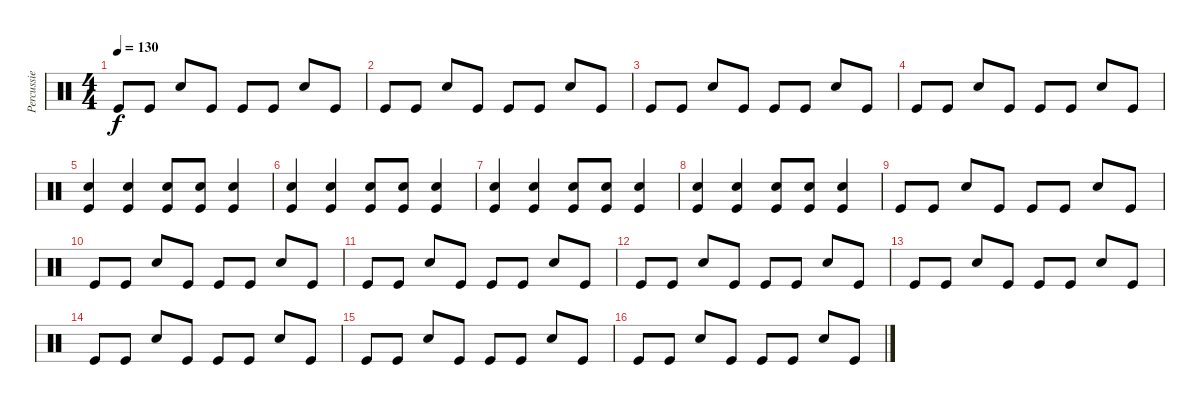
\track ("Percussie" "Percussie") {instrument percussion}
\staff {score}
\articulation defaults
\ts (4 4)
\tempo 130
\clef neutral
\ks c "Kick (hit)".8{dy f} "Kick (hit)".8 "Snare (hit) 2".8 "Kick (hit)".8 "Kick (hit)".8 "Kick (hit)".8 "Snare (hit) 2".8 "Kick (hit)".8
|
"Kick (hit)".8 "Kick (hit)".8 "Snare (hit) 2".8 "Kick (hit)".8 "Kick (hit)".8 "Kick (hit)".8 "Snare (hit) 2".8 "Kick (hit)".8 |
"Kick (hit)".8 "Kick (hit)".8 "Snare (hit) 2".8 "Kick (hit)".8 "Kick (hit)".8 "Kick (hit)".8 "Snare (hit) 2".8 "Kick (hit)".8 |
"Kick (hit)".8 "Kick (hit)".8 "Snare (hit) 2".8 "Kick (hit)".8 "Kick (hit)".8 "Kick (hit)".8 "Snare (hit) 2".8 "Kick (hit)".8 |
("Kick (hit)" "Snare (hit) 2").4 ("Kick (hit)" "Snare (hit) 2").4 ("Kick (hit)" "Snare (hit) 2").8 ("Kick (hit)" "Snare (hit) 2").8 ("Kick (hit)" "Snare (hit) 2").4 |
("Kick (hit)" "Snare (hit) 2").4 ("Kick (hit)" "Snare (hit) 2").4 ("Kick (hit)" "Snare (hit) 2").8 ("Kick (hit)" "Snare (hit) 2").8 ("Kick (hit)" "Snare (hit) 2").4 |
("Kick (hit)" "Snare (hit) 2").4 ("Kick (hit)" "Snare (hit) 2").4 ("Kick (hit)" "Snare (hit) 2").8 ("Kick (hit)" "Snare (hit) 2").8 ("Kick (hit)" "Snare (hit) 2").4 |
("Kick (hit)" "Snare (hit) 2").4 ("Kick (hit)" "Snare (hit) 2").4 ("Kick (hit)" "Snare (hit) 2").8 ("Kick (hit)" "Snare (hit) 2").8 ("Kick (hit)" "Snare (hit) 2").4 |
"Kick (hit)".8 "Kick (hit)".8 "Snare (hit) 2".8 "Kick (hit)".8 "Kick (hit)".8 "Kick (hit)".8 "Snare (hit) 2".8 "Kick (hit)".8 |
"Kick (hit)".8 "Kick (hit)".8 "Snare (hit) 2".8 "Kick (hit)".8 "Kick (hit)".8 "Kick (hit)".8 "Snare (hit) 2".8 "Kick (hit)".8 |
"Kick (hit)".8 "Kick (hit)".8 "Snare (hit) 2".8 "Kick (hit)".8 "Kick (hit)".8 "Kick (hit)".8 "Snare (hit) 2".8 "Kick (hit)".8 |
"Kick (hit)".8{volume 8} "Kick (hit)".8 "Snare (hit) 2".8 "Kick (hit)".8 "Kick (hit)".8 "Kick (hit)".8 "Snare (hit) 2".8 "Kick (hit)".8 |
"Kick (hit)".8 "Kick (hit)".8 "Snare (hit) 2".8 "Kick (hit)".8 "Kick (hit)".8 "Kick (hit)".8 "Snare (hit) 2".8 "Kick (hit)".8 |
"Kick (hit)".8 "Kick (hit)".8 "Snare (hit) 2".8 "Kick (hit)".8 "Kick (hit)".8 "Kick (hit)".8 "Snare (hit) 2".8 "Kick (hit)".8 |
"Kick (hit)".8 "Kick (hit)".8 "Snare (hit) 2".8 "Kick (hit)".8 "Kick (hit)".8 "Kick (hit)".8 "Snare (hit) 2".8 "Kick (hit)".8 |
"Kick (hit)".8 "Kick (hit)".8 "Snare (hit) 2".8 "Kick (hit)".8 "Kick (hit)".8 "Kick (hit)".8 "Snare (hit) 2".8 "Kick (hit)".8
